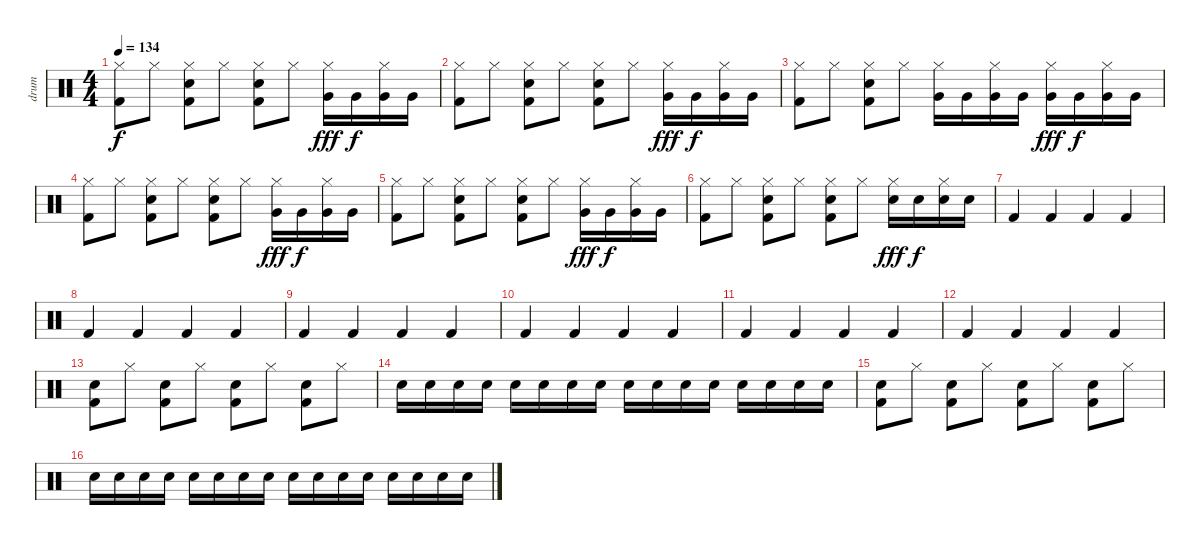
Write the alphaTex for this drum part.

\track ("drum" "drum") {instrument percussion}
\staff {score}
\articulation defaults
\ts (4 4)
\tempo 134
\clef neutral
\ks c
("Hi-Hat (closed)" "Kick (hit) 2").8{dy f} "Hi-Hat (closed)".8 ("Hi-Hat (closed)" "Electric Snare (hit)" "Kick (hit) 2").8 "Hi-Hat (closed)".8 ("Hi-Hat (closed)" "Electric Snare (hit)" "Kick (hit) 2").8 "Hi-Hat (closed)".8 ("Hi-Hat (closed)" "Very Low Tom (hit)").16{dy fff} "Very Low Tom (hit)".16{dy f} ("Hi-Hat (closed)" "Very Low Tom (hit)").16 "Very Low Tom (hit)".16 |
("Hi-Hat (closed)" "Kick (hit) 2").8 "Hi-Hat (closed)".8 ("Hi-Hat (closed)" "Electric Snare (hit)" "Kick (hit) 2").8 "Hi-Hat (closed)".8 ("Hi-Hat (closed)" "Electric Snare (hit)" "Kick (hit) 2").8 "Hi-Hat (closed)".8 ("Hi-Hat (closed)" "Very Low Tom (hit)").16{dy fff} "Very Low Tom (hit)".16{dy f} ("Hi-Hat (closed)" "Very Low Tom (hit)").16 "Very Low Tom (hit)".16 |
("Hi-Hat (closed)" "Kick (hit) 2").8 "Hi-Hat (closed)".8 ("Hi-Hat (closed)" "Electric Snare (hit)" "Kick (hit) 2").8 "Hi-Hat (closed)".8 ("Hi-Hat (closed)" "Very Low Tom (hit)").16 "Very Low Tom (hit)".16 ("Hi-Hat (closed)" "Very Low Tom (hit)").16 "Very Low Tom (hit)".16 ("Hi-Hat (closed)" "Very Low Tom (hit)").16{dy fff} "Very Low Tom (hit)".16{dy f} ("Hi-Hat (closed)" "Very Low Tom (hit)").16 "Very Low Tom (hit)".16 |
("Hi-Hat (closed)" "Kick (hit) 2").8 "Hi-Hat (closed)".8 ("Hi-Hat (closed)" "Electric Snare (hit)" "Kick (hit) 2").8 "Hi-Hat (closed)".8 ("Hi-Hat (closed)" "Electric Snare (hit)" "Kick (hit) 2").8 "Hi-Hat (closed)".8 ("Hi-Hat (closed)" "Very Low Tom (hit)").16{dy fff} "Very Low Tom (hit)".16{dy f} ("Hi-Hat (closed)" "Very Low Tom (hit)").16 "Very Low Tom (hit)".16 |
("Hi-Hat (closed)" "Kick (hit) 2").8 "Hi-Hat (closed)".8 ("Hi-Hat (closed)" "Electric Snare (hit)" "Kick (hit) 2").8 "Hi-Hat (closed)".8 ("Hi-Hat (closed)" "Electric Snare (hit)" "Kick (hit) 2").8 "Hi-Hat (closed)".8 ("Hi-Hat (closed)" "Very Low Tom (hit)").16{dy fff} "Very Low Tom (hit)".16{dy f} ("Hi-Hat (closed)" "Very Low Tom (hit)").16 "Very Low Tom (hit)".16 |
("Hi-Hat (closed)" "Kick (hit) 2").8 "Hi-Hat (closed)".8 ("Hi-Hat (closed)" "Electric Snare (hit)" "Kick (hit) 2").8 "Hi-Hat (closed)".8 ("Hi-Hat (closed)" "Electric Snare (hit)" "Kick (hit) 2").8 "Hi-Hat (closed)".8 ("Hi-Hat (closed)" "Electric Snare (hit)").16{dy fff} "Electric Snare (hit)".16{dy f} ("Hi-Hat (closed)" "Electric Snare (hit)").16 "Electric Snare (hit)".16 |
"Kick (hit) 2".4 "Kick (hit) 2".4 "Kick (hit) 2".4 "Kick (hit) 2".4 |
"Kick (hit) 2".4 "Kick (hit) 2".4 "Kick (hit) 2".4 "Kick (hit) 2".4 |
"Kick (hit) 2".4 "Kick (hit) 2".4 "Kick (hit) 2".4 "Kick (hit) 2".4 |
"Kick (hit) 2".4 "Kick (hit) 2".4 "Kick (hit) 2".4 "Kick (hit) 2".4 |
"Kick (hit) 2".4 "Kick (hit) 2".4 "Kick (hit) 2".4 "Kick (hit) 2".4 |
"Kick (hit) 2".4 "Kick (hit) 2".4 "Kick (hit) 2".4 "Kick (hit) 2".4 |
("Electric Snare (hit)" "Kick (hit) 2").8 "Hi-Hat (closed)".8 ("Electric Snare (hit)" "Kick (hit) 2").8 "Hi-Hat (closed)".8 ("Electric Snare (hit)" "Kick (hit) 2").8 "Hi-Hat (closed)".8 ("Electric Snare (hit)" "Kick (hit) 2").8 "Hi-Hat (closed)".8 |
"Electric Snare (hit)".16 "Electric Snare (hit)".16 "Electric Snare (hit)".16 "Electric Snare (hit)".16 "Electric Snare (hit)".16 "Electric Snare (hit)".16 "Electric Snare (hit)".16 "Electric Snare (hit)".16 "Electric Snare (hit)".16 "Electric Snare (hit)".16 "Electric Snare (hit)".16 "Electric Snare (hit)".16 "Electric Snare (hit)".16 "Electric Snare (hit)".16 "Electric Snare (hit)".16 "Electric Snare (hit)".16 |
("Electric Snare (hit)" "Kick (hit) 2").8 "Hi-Hat (closed)".8 ("Electric Snare (hit)" "Kick (hit) 2").8 "Hi-Hat (closed)".8 ("Electric Snare (hit)" "Kick (hit) 2").8 "Hi-Hat (closed)".8 ("Electric Snare (hit)" "Kick (hit) 2").8 "Hi-Hat (closed)".8 |
"Electric Snare (hit)".16 "Electric Snare (hit)".16 "Electric Snare (hit)".16 "Electric Snare (hit)".16 "Electric Snare (hit)".16 "Electric Snare (hit)".16 "Electric Snare (hit)".16 "Electric Snare (hit)".16 "Electric Snare (hit)".16 "Electric Snare (hit)".16 "Electric Snare (hit)".16 "Electric Snare (hit)".16 "Electric Snare (hit)".16 "Electric Snare (hit)".16 "Electric Snare (hit)".16 "Electric Snare (hit)".16
